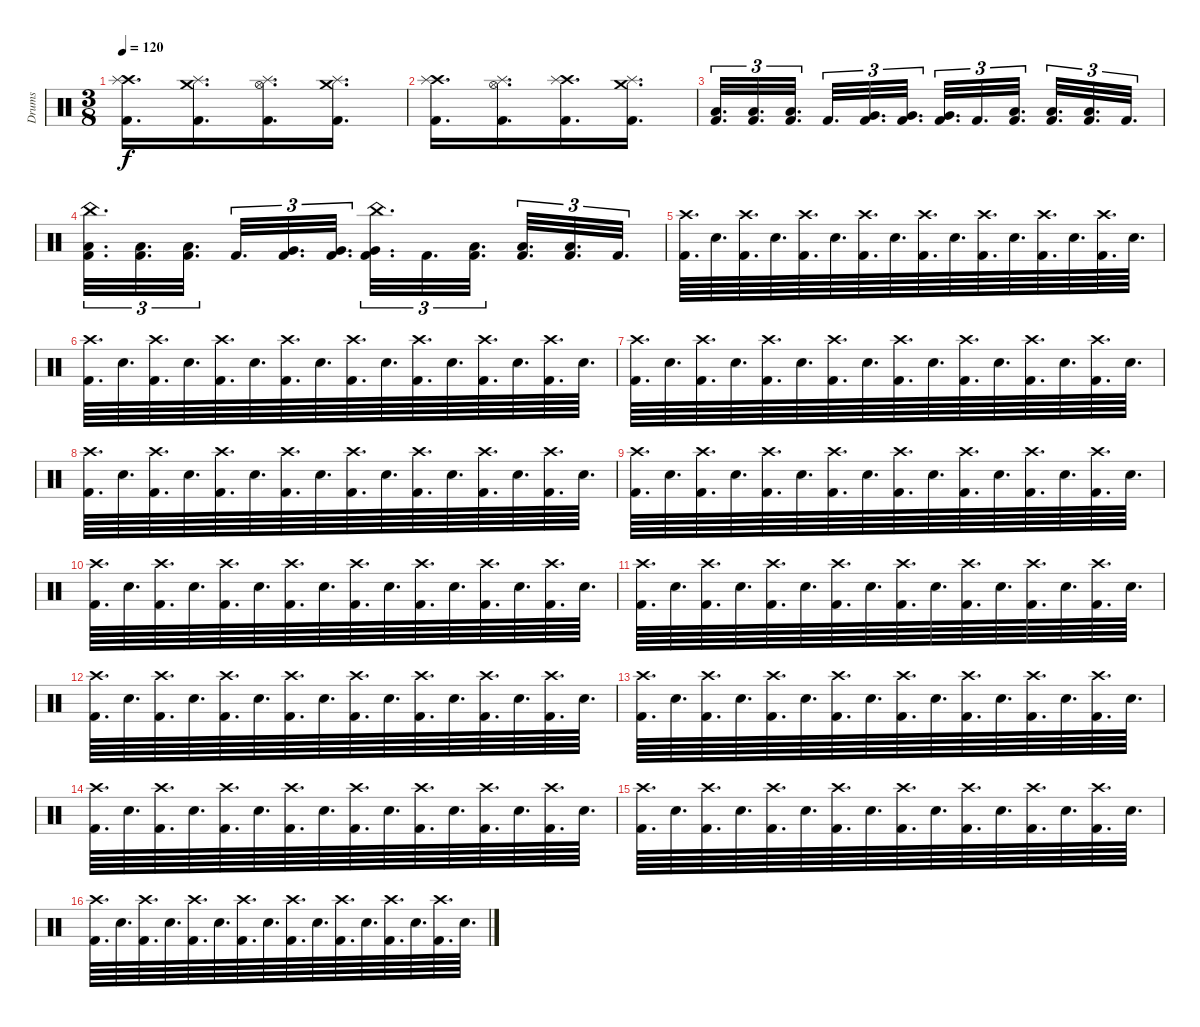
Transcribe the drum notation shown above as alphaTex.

\track ("Drums" "Drums") {instrument percussion}
\staff {score}
\articulation defaults
\ts (3 8)
\tempo 120
\clef neutral
\ks c
("Crash high (hit)" "Splash (hit)" "Kick (hit) 2").16{d dy f} ("Crash medium (hit)" "Splash (hit)" "Kick (hit) 2").16{d} ("Hi-Hat (open)" "Splash (hit)" "Kick (hit) 2").16{d} ("Splash (hit)" "Crash medium (hit)" "Kick (hit) 2").16{d} |
("Crash high (hit)" "Splash (hit)" "Kick (hit) 2").16{d} ("Hi-Hat (open)" "Splash (hit)" "Kick (hit) 2").16{d} ("Crash high (hit)" "Splash (hit)" "Kick (hit) 2").16{d} ("Crash medium (hit)" "Splash (hit)" "Kick (hit) 2").16{d} |
("Low Tom (hit)" "Kick (hit) 2").32{d tu (3 2)} ("Low Tom (hit)" "Kick (hit) 2").32{d tu (3 2)} ("Low Tom (hit)" "Kick (hit) 2").32{d tu (3 2)} "Kick (hit) 2".32{d tu (3 2)} ("Very Low Tom (hit)" "Kick (hit) 2").32{d tu (3 2)} ("Very Low Tom (hit)" "Kick (hit) 2").32{d tu (3 2)} ("Very Low Tom (hit)" "Kick (hit) 2").32{d tu (3 2)} "Kick (hit) 2".32{d tu (3 2)} ("Low Floor Tom (hit)" "Kick (hit) 2").32{d tu (3 2)} ("Low Floor Tom (hit)" "Kick (hit) 2").32{d tu (3 2)} ("Low Floor Tom (hit)" "Kick (hit) 2").32{d tu (3 2)} "Kick (hit) 2".32{d tu (3 2)} |
("China (hit)" "Low Tom (hit)" "Kick (hit) 2").32{d tu (3 2)} ("Low Tom (hit)" "Kick (hit) 2").32{d tu (3 2)} ("Low Tom (hit)" "Kick (hit) 2").32{d tu (3 2)} "Kick (hit) 2".32{d tu (3 2)} ("Very Low Tom (hit)" "Kick (hit) 2").32{d tu (3 2)} ("Very Low Tom (hit)" "Kick (hit) 2").32{d tu (3 2)} ("China (hit)" "Very Low Tom (hit)" "Kick (hit) 2").32{d tu (3 2)} "Kick (hit) 2".32{d tu (3 2)} ("Low Floor Tom (hit)" "Kick (hit) 2").32{d tu (3 2)} ("Low Floor Tom (hit)" "Kick (hit) 2").32{d tu (3 2)} ("Low Floor Tom (hit)" "Kick (hit) 2").32{d tu (3 2)} "Kick (hit) 2".32{d tu (3 2)} |
("Crash high (hit)" "Kick (hit) 2").64{d} "Electric Snare (hit)".64{d} ("Crash high (hit)" "Kick (hit) 2").64{d} "Electric Snare (hit)".64{d} ("Crash high (hit)" "Kick (hit) 2").64{d} "Electric Snare (hit)".64{d} ("Crash high (hit)" "Kick (hit) 2").64{d} "Electric Snare (hit)".64{d} ("Crash high (hit)" "Kick (hit) 2").64{d} "Electric Snare (hit)".64{d} ("Crash high (hit)" "Kick (hit) 2").64{d} "Electric Snare (hit)".64{d} ("Crash high (hit)" "Kick (hit) 2").64{d} "Electric Snare (hit)".64{d} ("Crash high (hit)" "Kick (hit) 2").64{d} "Electric Snare (hit)".64{d} |
("Crash high (hit)" "Kick (hit) 2").64{d} "Electric Snare (hit)".64{d} ("Crash high (hit)" "Kick (hit) 2").64{d} "Electric Snare (hit)".64{d} ("Crash high (hit)" "Kick (hit) 2").64{d} "Electric Snare (hit)".64{d} ("Crash high (hit)" "Kick (hit) 2").64{d} "Electric Snare (hit)".64{d} ("Crash high (hit)" "Kick (hit) 2").64{d} "Electric Snare (hit)".64{d} ("Crash high (hit)" "Kick (hit) 2").64{d} "Electric Snare (hit)".64{d} ("Crash high (hit)" "Kick (hit) 2").64{d} "Electric Snare (hit)".64{d} ("Crash high (hit)" "Kick (hit) 2").64{d} "Electric Snare (hit)".64{d} |
("Crash high (hit)" "Kick (hit) 2").64{d} "Electric Snare (hit)".64{d} ("Crash high (hit)" "Kick (hit) 2").64{d} "Electric Snare (hit)".64{d} ("Crash high (hit)" "Kick (hit) 2").64{d} "Electric Snare (hit)".64{d} ("Crash high (hit)" "Kick (hit) 2").64{d} "Electric Snare (hit)".64{d} ("Crash high (hit)" "Kick (hit) 2").64{d} "Electric Snare (hit)".64{d} ("Crash high (hit)" "Kick (hit) 2").64{d} "Electric Snare (hit)".64{d} ("Crash high (hit)" "Kick (hit) 2").64{d} "Electric Snare (hit)".64{d} ("Crash high (hit)" "Kick (hit) 2").64{d} "Electric Snare (hit)".64{d} |
("Crash high (hit)" "Kick (hit) 2").64{d} "Electric Snare (hit)".64{d} ("Crash high (hit)" "Kick (hit) 2").64{d} "Electric Snare (hit)".64{d} ("Crash high (hit)" "Kick (hit) 2").64{d} "Electric Snare (hit)".64{d} ("Crash high (hit)" "Kick (hit) 2").64{d} "Electric Snare (hit)".64{d} ("Crash high (hit)" "Kick (hit) 2").64{d} "Electric Snare (hit)".64{d} ("Crash high (hit)" "Kick (hit) 2").64{d} "Electric Snare (hit)".64{d} ("Crash high (hit)" "Kick (hit) 2").64{d} "Electric Snare (hit)".64{d} ("Crash high (hit)" "Kick (hit) 2").64{d} "Electric Snare (hit)".64{d} |
("Crash high (hit)" "Kick (hit) 2").64{d} "Electric Snare (hit)".64{d} ("Crash high (hit)" "Kick (hit) 2").64{d} "Electric Snare (hit)".64{d} ("Crash high (hit)" "Kick (hit) 2").64{d} "Electric Snare (hit)".64{d} ("Crash high (hit)" "Kick (hit) 2").64{d} "Electric Snare (hit)".64{d} ("Crash high (hit)" "Kick (hit) 2").64{d} "Electric Snare (hit)".64{d} ("Crash high (hit)" "Kick (hit) 2").64{d} "Electric Snare (hit)".64{d} ("Crash high (hit)" "Kick (hit) 2").64{d} "Electric Snare (hit)".64{d} ("Crash high (hit)" "Kick (hit) 2").64{d} "Electric Snare (hit)".64{d} |
("Crash high (hit)" "Kick (hit) 2").64{d} "Electric Snare (hit)".64{d} ("Crash high (hit)" "Kick (hit) 2").64{d} "Electric Snare (hit)".64{d} ("Crash high (hit)" "Kick (hit) 2").64{d} "Electric Snare (hit)".64{d} ("Crash high (hit)" "Kick (hit) 2").64{d} "Electric Snare (hit)".64{d} ("Crash high (hit)" "Kick (hit) 2").64{d} "Electric Snare (hit)".64{d} ("Crash high (hit)" "Kick (hit) 2").64{d} "Electric Snare (hit)".64{d} ("Crash high (hit)" "Kick (hit) 2").64{d} "Electric Snare (hit)".64{d} ("Crash high (hit)" "Kick (hit) 2").64{d} "Electric Snare (hit)".64{d} |
("Crash high (hit)" "Kick (hit) 2").64{d} "Electric Snare (hit)".64{d} ("Crash high (hit)" "Kick (hit) 2").64{d} "Electric Snare (hit)".64{d} ("Crash high (hit)" "Kick (hit) 2").64{d} "Electric Snare (hit)".64{d} ("Crash high (hit)" "Kick (hit) 2").64{d} "Electric Snare (hit)".64{d} ("Crash high (hit)" "Kick (hit) 2").64{d} "Electric Snare (hit)".64{d} ("Crash high (hit)" "Kick (hit) 2").64{d} "Electric Snare (hit)".64{d} ("Crash high (hit)" "Kick (hit) 2").64{d} "Electric Snare (hit)".64{d} ("Crash high (hit)" "Kick (hit) 2").64{d} "Electric Snare (hit)".64{d} |
("Crash high (hit)" "Kick (hit) 2").64{d} "Electric Snare (hit)".64{d} ("Crash high (hit)" "Kick (hit) 2").64{d} "Electric Snare (hit)".64{d} ("Crash high (hit)" "Kick (hit) 2").64{d} "Electric Snare (hit)".64{d} ("Crash high (hit)" "Kick (hit) 2").64{d} "Electric Snare (hit)".64{d} ("Crash high (hit)" "Kick (hit) 2").64{d} "Electric Snare (hit)".64{d} ("Crash high (hit)" "Kick (hit) 2").64{d} "Electric Snare (hit)".64{d} ("Crash high (hit)" "Kick (hit) 2").64{d} "Electric Snare (hit)".64{d} ("Crash high (hit)" "Kick (hit) 2").64{d} "Electric Snare (hit)".64{d} |
("Crash high (hit)" "Kick (hit) 2").64{d} "Electric Snare (hit)".64{d} ("Crash high (hit)" "Kick (hit) 2").64{d} "Electric Snare (hit)".64{d} ("Crash high (hit)" "Kick (hit) 2").64{d} "Electric Snare (hit)".64{d} ("Crash high (hit)" "Kick (hit) 2").64{d} "Electric Snare (hit)".64{d} ("Crash high (hit)" "Kick (hit) 2").64{d} "Electric Snare (hit)".64{d} ("Crash high (hit)" "Kick (hit) 2").64{d} "Electric Snare (hit)".64{d} ("Crash high (hit)" "Kick (hit) 2").64{d} "Electric Snare (hit)".64{d} ("Crash high (hit)" "Kick (hit) 2").64{d} "Electric Snare (hit)".64{d} |
("Crash high (hit)" "Kick (hit) 2").64{d} "Electric Snare (hit)".64{d} ("Crash high (hit)" "Kick (hit) 2").64{d} "Electric Snare (hit)".64{d} ("Crash high (hit)" "Kick (hit) 2").64{d} "Electric Snare (hit)".64{d} ("Crash high (hit)" "Kick (hit) 2").64{d} "Electric Snare (hit)".64{d} ("Crash high (hit)" "Kick (hit) 2").64{d} "Electric Snare (hit)".64{d} ("Crash high (hit)" "Kick (hit) 2").64{d} "Electric Snare (hit)".64{d} ("Crash high (hit)" "Kick (hit) 2").64{d} "Electric Snare (hit)".64{d} ("Crash high (hit)" "Kick (hit) 2").64{d} "Electric Snare (hit)".64{d} |
("Crash high (hit)" "Kick (hit) 2").64{d} "Electric Snare (hit)".64{d} ("Crash high (hit)" "Kick (hit) 2").64{d} "Electric Snare (hit)".64{d} ("Crash high (hit)" "Kick (hit) 2").64{d} "Electric Snare (hit)".64{d} ("Crash high (hit)" "Kick (hit) 2").64{d} "Electric Snare (hit)".64{d} ("Crash high (hit)" "Kick (hit) 2").64{d} "Electric Snare (hit)".64{d} ("Crash high (hit)" "Kick (hit) 2").64{d} "Electric Snare (hit)".64{d} ("Crash high (hit)" "Kick (hit) 2").64{d} "Electric Snare (hit)".64{d} ("Crash high (hit)" "Kick (hit) 2").64{d} "Electric Snare (hit)".64{d} |
("Crash high (hit)" "Kick (hit) 2").64{d} "Electric Snare (hit)".64{d} ("Crash high (hit)" "Kick (hit) 2").64{d} "Electric Snare (hit)".64{d} ("Crash high (hit)" "Kick (hit) 2").64{d} "Electric Snare (hit)".64{d} ("Crash high (hit)" "Kick (hit) 2").64{d} "Electric Snare (hit)".64{d} ("Crash high (hit)" "Kick (hit) 2").64{d} "Electric Snare (hit)".64{d} ("Crash high (hit)" "Kick (hit) 2").64{d} "Electric Snare (hit)".64{d} ("Crash high (hit)" "Kick (hit) 2").64{d} "Electric Snare (hit)".64{d} ("Crash high (hit)" "Kick (hit) 2").64{d} "Electric Snare (hit)".64{d}
